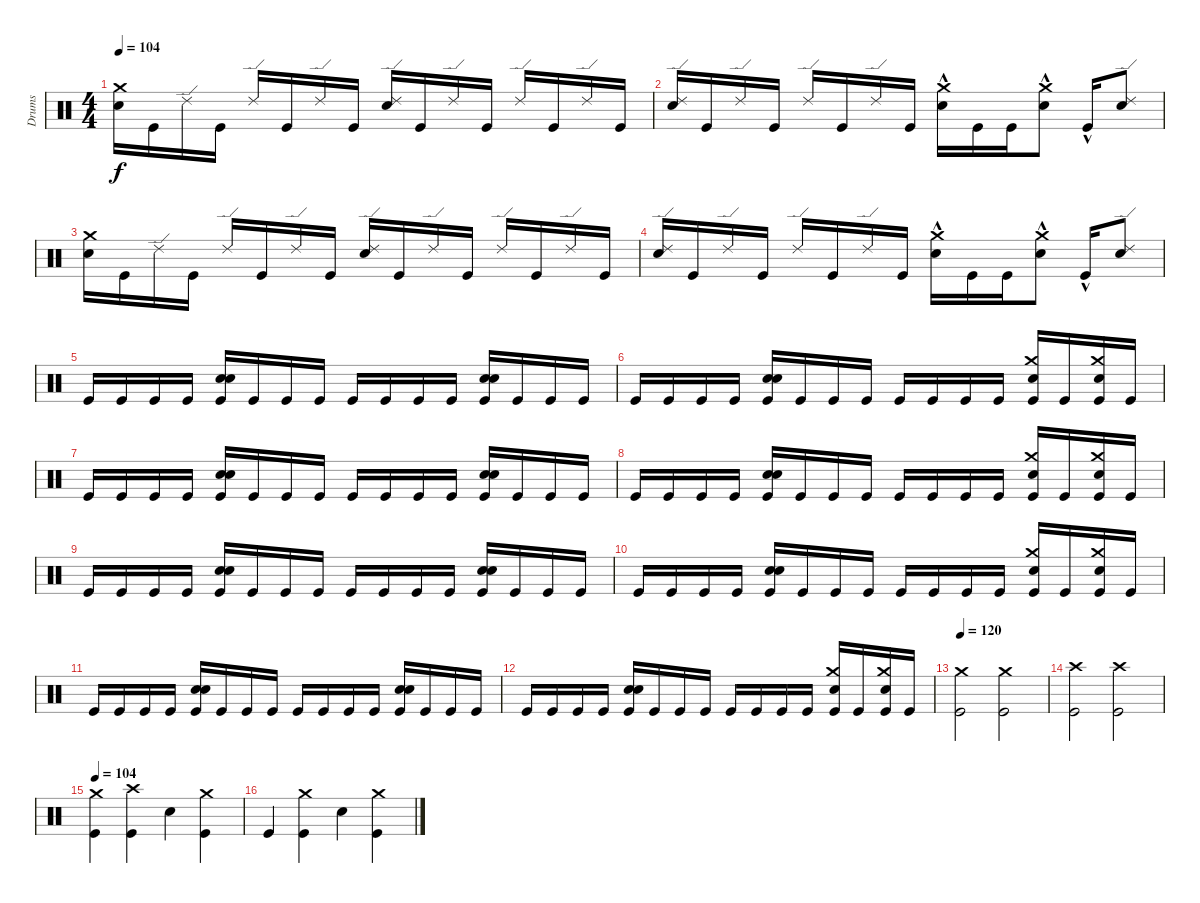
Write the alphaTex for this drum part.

\track ("Drums" "Drums") {instrument percussion}
\staff {score}
\articulation defaults
\ts (4 4)
\tempo 104
\clef neutral
\ks c
("Electric Snare (hit)" "Crash medium (hit)").16{dy f} "Kick (hit)".16 "Ride (edge) 2".16 "Kick (hit)".16 "Ride (edge) 2".16 "Kick (hit)".16 "Ride (edge) 2".16 "Kick (hit)".16 ("Electric Snare (hit)" "Ride (edge) 2").16 "Kick (hit)".16 "Ride (edge) 2".16 "Kick (hit)".16 "Ride (edge) 2".16 "Kick (hit)".16 "Ride (edge) 2".16 "Kick (hit)".16 |
("Electric Snare (hit)" "Ride (edge) 2").16 "Kick (hit)".16 "Ride (edge) 2".16 "Kick (hit)".16 "Ride (edge) 2".16 "Kick (hit)".16 "Ride (edge) 2".16 "Kick (hit)".16 ("Electric Snare (hit)"{hac} "Crash medium (hit)"{hac}).16 "Kick (hit)".16 "Kick (hit)".16 ("Electric Snare (hit)"{hac} "Crash medium (hit)"{hac}).8 "Kick (hit)"{hac}.16 ("Electric Snare (hit)" "Ride (edge) 2").8 |
("Electric Snare (hit)" "Crash medium (hit)").16 "Kick (hit)".16 "Ride (edge) 2".16 "Kick (hit)".16 "Ride (edge) 2".16 "Kick (hit)".16 "Ride (edge) 2".16 "Kick (hit)".16 ("Electric Snare (hit)" "Ride (edge) 2").16 "Kick (hit)".16 "Ride (edge) 2".16 "Kick (hit)".16 "Ride (edge) 2".16 "Kick (hit)".16 "Ride (edge) 2".16 "Kick (hit)".16 |
("Electric Snare (hit)" "Ride (edge) 2").16 "Kick (hit)".16 "Ride (edge) 2".16 "Kick (hit)".16 "Ride (edge) 2".16 "Kick (hit)".16 "Ride (edge) 2".16 "Kick (hit)".16 ("Electric Snare (hit)"{hac} "Crash medium (hit)"{hac}).16 "Kick (hit)".16 "Kick (hit)".16 ("Electric Snare (hit)"{hac} "Crash medium (hit)"{hac}).8 "Kick (hit)"{hac}.16 ("Electric Snare (hit)" "Ride (edge) 2").8 |
"Kick (hit)".16 "Kick (hit)".16 "Kick (hit)".16 "Kick (hit)".16 ("Kick (hit)" "Snare (hit) 2" "Electric Snare (hit)").16 "Kick (hit)".16 "Kick (hit)".16 "Kick (hit)".16 "Kick (hit)".16 "Kick (hit)".16 "Kick (hit)".16 "Kick (hit)".16 ("Snare (hit) 2" "Electric Snare (hit)" "Kick (hit)").16 "Kick (hit)".16 "Kick (hit)".16 "Kick (hit)".16 |
"Kick (hit)".16 "Kick (hit)".16 "Kick (hit)".16 "Kick (hit)".16 ("Snare (hit) 2" "Electric Snare (hit)" "Kick (hit)").16 "Kick (hit)".16 "Kick (hit)".16 "Kick (hit)".16 "Kick (hit)".16 "Kick (hit)".16 "Kick (hit)".16 "Kick (hit)".16 ("Electric Snare (hit)" "Crash medium (hit)" "Kick (hit)").16 "Kick (hit)".16 ("Electric Snare (hit)" "Crash medium (hit)" "Kick (hit)").16 "Kick (hit)".16 |
"Kick (hit)".16 "Kick (hit)".16 "Kick (hit)".16 "Kick (hit)".16 ("Kick (hit)" "Snare (hit) 2" "Electric Snare (hit)").16 "Kick (hit)".16 "Kick (hit)".16 "Kick (hit)".16 "Kick (hit)".16 "Kick (hit)".16 "Kick (hit)".16 "Kick (hit)".16 ("Snare (hit) 2" "Electric Snare (hit)" "Kick (hit)").16 "Kick (hit)".16 "Kick (hit)".16 "Kick (hit)".16 |
"Kick (hit)".16 "Kick (hit)".16 "Kick (hit)".16 "Kick (hit)".16 ("Snare (hit) 2" "Electric Snare (hit)" "Kick (hit)").16 "Kick (hit)".16 "Kick (hit)".16 "Kick (hit)".16 "Kick (hit)".16 "Kick (hit)".16 "Kick (hit)".16 "Kick (hit)".16 ("Electric Snare (hit)" "Crash medium (hit)" "Kick (hit)").16 "Kick (hit)".16 ("Electric Snare (hit)" "Crash medium (hit)" "Kick (hit)").16 "Kick (hit)".16 |
"Kick (hit)".16 "Kick (hit)".16 "Kick (hit)".16 "Kick (hit)".16 ("Kick (hit)" "Snare (hit) 2" "Electric Snare (hit)").16 "Kick (hit)".16 "Kick (hit)".16 "Kick (hit)".16 "Kick (hit)".16 "Kick (hit)".16 "Kick (hit)".16 "Kick (hit)".16 ("Snare (hit) 2" "Electric Snare (hit)" "Kick (hit)").16 "Kick (hit)".16 "Kick (hit)".16 "Kick (hit)".16 |
"Kick (hit)".16 "Kick (hit)".16 "Kick (hit)".16 "Kick (hit)".16 ("Snare (hit) 2" "Electric Snare (hit)" "Kick (hit)").16 "Kick (hit)".16 "Kick (hit)".16 "Kick (hit)".16 "Kick (hit)".16 "Kick (hit)".16 "Kick (hit)".16 "Kick (hit)".16 ("Electric Snare (hit)" "Crash medium (hit)" "Kick (hit)").16 "Kick (hit)".16 ("Electric Snare (hit)" "Crash medium (hit)" "Kick (hit)").16 "Kick (hit)".16 |
"Kick (hit)".16 "Kick (hit)".16 "Kick (hit)".16 "Kick (hit)".16 ("Kick (hit)" "Snare (hit) 2" "Electric Snare (hit)").16 "Kick (hit)".16 "Kick (hit)".16 "Kick (hit)".16 "Kick (hit)".16 "Kick (hit)".16 "Kick (hit)".16 "Kick (hit)".16 ("Snare (hit) 2" "Electric Snare (hit)" "Kick (hit)").16 "Kick (hit)".16 "Kick (hit)".16 "Kick (hit)".16 |
"Kick (hit)".16 "Kick (hit)".16 "Kick (hit)".16 "Kick (hit)".16 ("Snare (hit) 2" "Electric Snare (hit)" "Kick (hit)").16 "Kick (hit)".16 "Kick (hit)".16 "Kick (hit)".16 "Kick (hit)".16 "Kick (hit)".16 "Kick (hit)".16 "Kick (hit)".16 ("Electric Snare (hit)" "Crash medium (hit)" "Kick (hit)").16 "Kick (hit)".16 ("Electric Snare (hit)" "Crash medium (hit)" "Kick (hit)").16 "Kick (hit)".16 |
\tempo 120
("Kick (hit)" "Crash medium (hit)").2 ("Kick (hit)" "Crash medium (hit)").2 |
("Kick (hit)" "Crash high (hit)").2 ("Kick (hit)" "Crash high (hit)").2 |
\tempo 104
("Kick (hit)" "Crash medium (hit)").4 ("Kick (hit)" "Crash high (hit)").4 "Electric Snare (hit)".4 ("Kick (hit)" "Crash medium (hit)").4 |
"Kick (hit)".4 ("Kick (hit)" "Crash medium (hit)").4 "Electric Snare (hit)".4 ("Kick (hit)" "Crash medium (hit)").4
